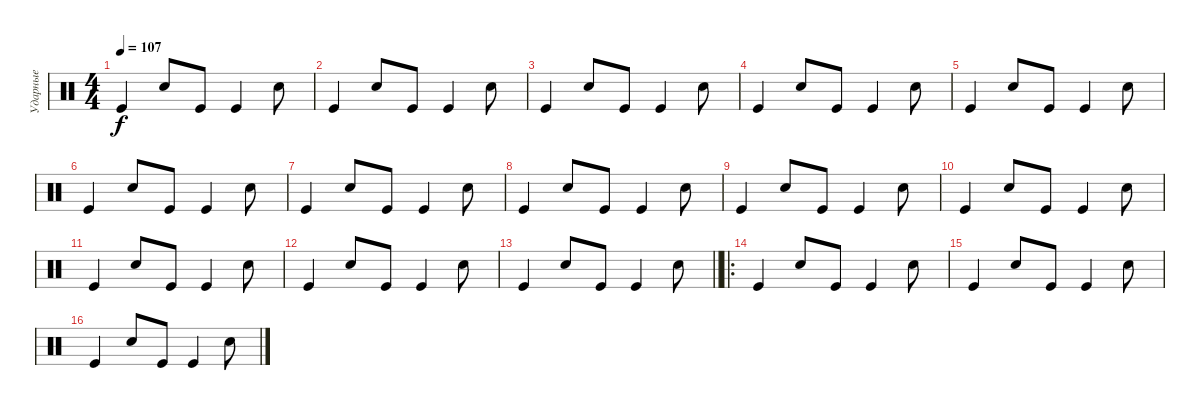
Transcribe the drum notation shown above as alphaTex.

\track ("Ударные" "Ударные") {instrument percussion}
\staff {score}
\articulation defaults
\ts (4 4)
\tempo 107
\clef neutral
\ks c "Kick (hit)".4{dy f} "Snare (hit) 2".8 "Kick (hit)".8 "Kick (hit)".4 "Snare (hit) 2".8
|
"Kick (hit)".4 "Snare (hit) 2".8 "Kick (hit)".8 "Kick (hit)".4 "Snare (hit) 2".8 |
"Kick (hit)".4 "Snare (hit) 2".8 "Kick (hit)".8 "Kick (hit)".4 "Snare (hit) 2".8 |
"Kick (hit)".4 "Snare (hit) 2".8 "Kick (hit)".8 "Kick (hit)".4 "Snare (hit) 2".8 |
"Kick (hit)".4 "Snare (hit) 2".8 "Kick (hit)".8 "Kick (hit)".4 "Snare (hit) 2".8 |
"Kick (hit)".4 "Snare (hit) 2".8 "Kick (hit)".8 "Kick (hit)".4 "Snare (hit) 2".8 |
"Kick (hit)".4 "Snare (hit) 2".8 "Kick (hit)".8 "Kick (hit)".4 "Snare (hit) 2".8 |
"Kick (hit)".4 "Snare (hit) 2".8 "Kick (hit)".8 "Kick (hit)".4 "Snare (hit) 2".8 |
"Kick (hit)".4 "Snare (hit) 2".8 "Kick (hit)".8 "Kick (hit)".4 "Snare (hit) 2".8 |
"Kick (hit)".4 "Snare (hit) 2".8 "Kick (hit)".8 "Kick (hit)".4 "Snare (hit) 2".8 |
"Kick (hit)".4 "Snare (hit) 2".8 "Kick (hit)".8 "Kick (hit)".4 "Snare (hit) 2".8 |
"Kick (hit)".4 "Snare (hit) 2".8 "Kick (hit)".8 "Kick (hit)".4 "Snare (hit) 2".8 |
\barLineRight lightlight "Kick (hit)".4 "Snare (hit) 2".8 "Kick (hit)".8 "Kick (hit)".4 "Snare (hit) 2".8
|
\ro "Kick (hit)".4 "Snare (hit) 2".8 "Kick (hit)".8 "Kick (hit)".4 "Snare (hit) 2".8
|
"Kick (hit)".4 "Snare (hit) 2".8 "Kick (hit)".8 "Kick (hit)".4 "Snare (hit) 2".8 |
"Kick (hit)".4 "Snare (hit) 2".8 "Kick (hit)".8 "Kick (hit)".4 "Snare (hit) 2".8
